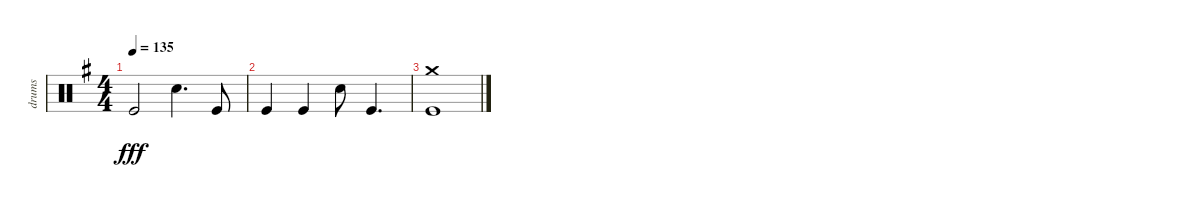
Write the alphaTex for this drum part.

\track ("drums" "drums") {instrument percussion}
\staff {score}
\articulation defaults
\ts (4 4)
\tempo 135
\clef neutral
\ks eminor "Kick (hit)".2{dy fff} "Electric Snare (hit)".4{d} "Kick (hit)".8
|
"Kick (hit)".4 "Kick (hit)".4 "Electric Snare (hit)".8 "Kick (hit)".4{d} |
("Crash medium (hit)" "Kick (hit)").1
